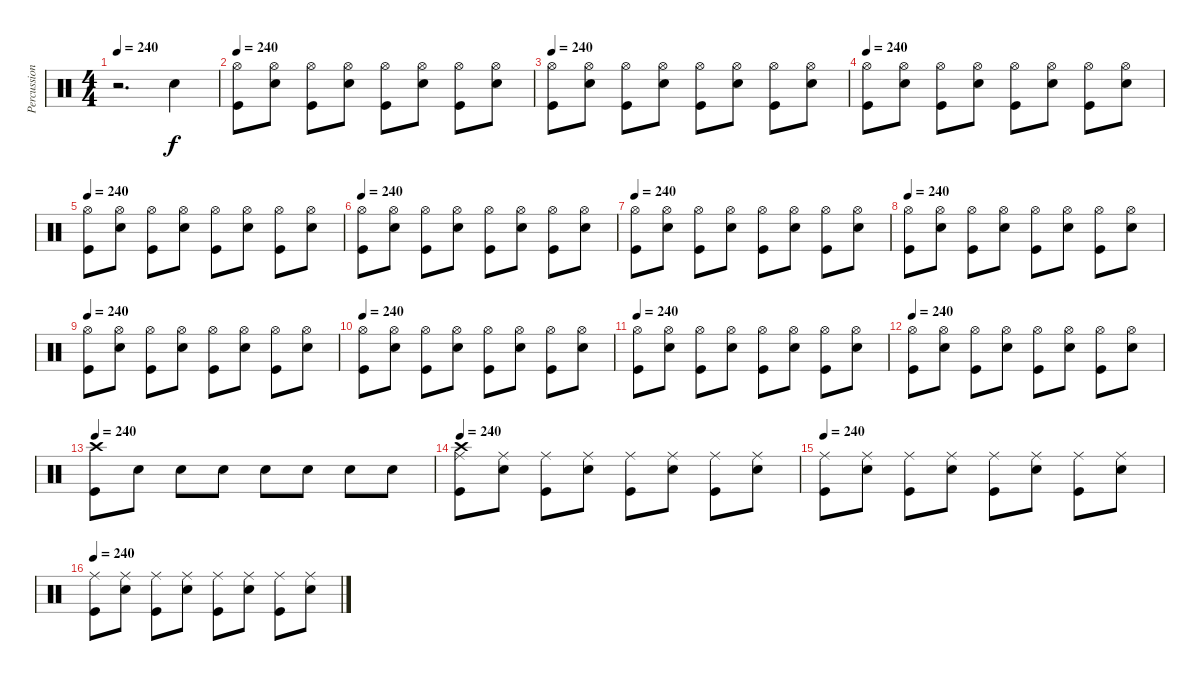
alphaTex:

\track ("Percussion" "Percussion") {instrument percussion}
\staff {score}
\articulation defaults
\ts (4 4)
\tempo 240
\clef neutral
\ks c
r.2{d dy f} "Electric Snare (hit)".4 |
\tempo 240
("Hi-Hat (open)" "Kick (hit)").8 ("Electric Snare (hit)" "Hi-Hat (open)").8 ("Hi-Hat (open)" "Kick (hit)").8 ("Electric Snare (hit)" "Hi-Hat (open)").8 ("Hi-Hat (open)" "Kick (hit)").8 ("Electric Snare (hit)" "Hi-Hat (open)").8 ("Hi-Hat (open)" "Kick (hit)").8 ("Electric Snare (hit)" "Hi-Hat (open)").8 |
\tempo 240
("Hi-Hat (open)" "Kick (hit)").8 ("Electric Snare (hit)" "Hi-Hat (open)").8 ("Hi-Hat (open)" "Kick (hit)").8 ("Electric Snare (hit)" "Hi-Hat (open)").8 ("Hi-Hat (open)" "Kick (hit)").8 ("Electric Snare (hit)" "Hi-Hat (open)").8 ("Hi-Hat (open)" "Kick (hit)").8 ("Electric Snare (hit)" "Hi-Hat (open)").8 |
\tempo 240
("Hi-Hat (open)" "Kick (hit)").8 ("Electric Snare (hit)" "Hi-Hat (open)").8 ("Hi-Hat (open)" "Kick (hit)").8 ("Electric Snare (hit)" "Hi-Hat (open)").8 ("Hi-Hat (open)" "Kick (hit)").8 ("Electric Snare (hit)" "Hi-Hat (open)").8 ("Hi-Hat (open)" "Kick (hit)").8 ("Electric Snare (hit)" "Hi-Hat (open)").8 |
\tempo 240
("Hi-Hat (open)" "Kick (hit)").8 ("Electric Snare (hit)" "Hi-Hat (open)").8 ("Hi-Hat (open)" "Kick (hit)").8 ("Electric Snare (hit)" "Hi-Hat (open)").8 ("Hi-Hat (open)" "Kick (hit)").8 ("Electric Snare (hit)" "Hi-Hat (open)").8 ("Hi-Hat (open)" "Kick (hit)").8 ("Electric Snare (hit)" "Hi-Hat (open)").8 |
\tempo 240
("Hi-Hat (open)" "Kick (hit)").8 ("Electric Snare (hit)" "Hi-Hat (open)").8 ("Hi-Hat (open)" "Kick (hit)").8 ("Electric Snare (hit)" "Hi-Hat (open)").8 ("Hi-Hat (open)" "Kick (hit)").8 ("Electric Snare (hit)" "Hi-Hat (open)").8 ("Hi-Hat (open)" "Kick (hit)").8 ("Electric Snare (hit)" "Hi-Hat (open)").8 |
\tempo 240
("Hi-Hat (open)" "Kick (hit)").8 ("Electric Snare (hit)" "Hi-Hat (open)").8 ("Hi-Hat (open)" "Kick (hit)").8 ("Electric Snare (hit)" "Hi-Hat (open)").8 ("Hi-Hat (open)" "Kick (hit)").8 ("Electric Snare (hit)" "Hi-Hat (open)").8 ("Hi-Hat (open)" "Kick (hit)").8 ("Electric Snare (hit)" "Hi-Hat (open)").8 |
\tempo 240
("Hi-Hat (open)" "Kick (hit)").8 ("Electric Snare (hit)" "Hi-Hat (open)").8 ("Hi-Hat (open)" "Kick (hit)").8 ("Electric Snare (hit)" "Hi-Hat (open)").8 ("Hi-Hat (open)" "Kick (hit)").8 ("Electric Snare (hit)" "Hi-Hat (open)").8 ("Hi-Hat (open)" "Kick (hit)").8 ("Electric Snare (hit)" "Hi-Hat (open)").8 |
\tempo 240
("Hi-Hat (open)" "Kick (hit)").8 ("Electric Snare (hit)" "Hi-Hat (open)").8 ("Hi-Hat (open)" "Kick (hit)").8 ("Electric Snare (hit)" "Hi-Hat (open)").8 ("Hi-Hat (open)" "Kick (hit)").8 ("Electric Snare (hit)" "Hi-Hat (open)").8 ("Hi-Hat (open)" "Kick (hit)").8 ("Electric Snare (hit)" "Hi-Hat (open)").8 |
\tempo 240
("Hi-Hat (open)" "Kick (hit)").8 ("Electric Snare (hit)" "Hi-Hat (open)").8 ("Hi-Hat (open)" "Kick (hit)").8 ("Electric Snare (hit)" "Hi-Hat (open)").8 ("Hi-Hat (open)" "Kick (hit)").8 ("Electric Snare (hit)" "Hi-Hat (open)").8 ("Hi-Hat (open)" "Kick (hit)").8 ("Electric Snare (hit)" "Hi-Hat (open)").8 |
\tempo 240
("Hi-Hat (open)" "Kick (hit)").8 ("Electric Snare (hit)" "Hi-Hat (open)").8 ("Hi-Hat (open)" "Kick (hit)").8 ("Electric Snare (hit)" "Hi-Hat (open)").8 ("Hi-Hat (open)" "Kick (hit)").8 ("Electric Snare (hit)" "Hi-Hat (open)").8 ("Hi-Hat (open)" "Kick (hit)").8 ("Electric Snare (hit)" "Hi-Hat (open)").8 |
\tempo 240
("Hi-Hat (open)" "Kick (hit)").8 ("Electric Snare (hit)" "Hi-Hat (open)").8 ("Hi-Hat (open)" "Kick (hit)").8 ("Electric Snare (hit)" "Hi-Hat (open)").8 ("Hi-Hat (open)" "Kick (hit)").8 ("Electric Snare (hit)" "Hi-Hat (open)").8 ("Hi-Hat (open)" "Kick (hit)").8 ("Electric Snare (hit)" "Hi-Hat (open)").8 |
\tempo 240
("Crash high (hit)" "Kick (hit)").8 "Electric Snare (hit)".8 "Electric Snare (hit)".8 "Electric Snare (hit)".8 "Electric Snare (hit)".8 "Electric Snare (hit)".8 "Electric Snare (hit)".8 "Electric Snare (hit)".8 |
\tempo 240
("Ride (middle)" "Crash high (hit)" "Kick (hit)").8 ("Electric Snare (hit)" "Ride (middle)").8 ("Ride (middle)" "Kick (hit)").8 ("Electric Snare (hit)" "Ride (middle)").8 ("Ride (middle)" "Kick (hit)").8 ("Electric Snare (hit)" "Ride (middle)").8 ("Ride (middle)" "Kick (hit)").8 ("Electric Snare (hit)" "Ride (middle)").8 |
\tempo 240
("Ride (middle)" "Kick (hit)").8 ("Electric Snare (hit)" "Ride (middle)").8 ("Ride (middle)" "Kick (hit)").8 ("Electric Snare (hit)" "Ride (middle)").8 ("Ride (middle)" "Kick (hit)").8 ("Electric Snare (hit)" "Ride (middle)").8 ("Ride (middle)" "Kick (hit)").8 ("Electric Snare (hit)" "Ride (middle)").8 |
\tempo 240
("Ride (middle)" "Kick (hit)").8 ("Electric Snare (hit)" "Ride (middle)").8 ("Ride (middle)" "Kick (hit)").8 ("Electric Snare (hit)" "Ride (middle)").8 ("Ride (middle)" "Kick (hit)").8 ("Electric Snare (hit)" "Ride (middle)").8 ("Ride (middle)" "Kick (hit)").8 ("Electric Snare (hit)" "Ride (middle)").8
